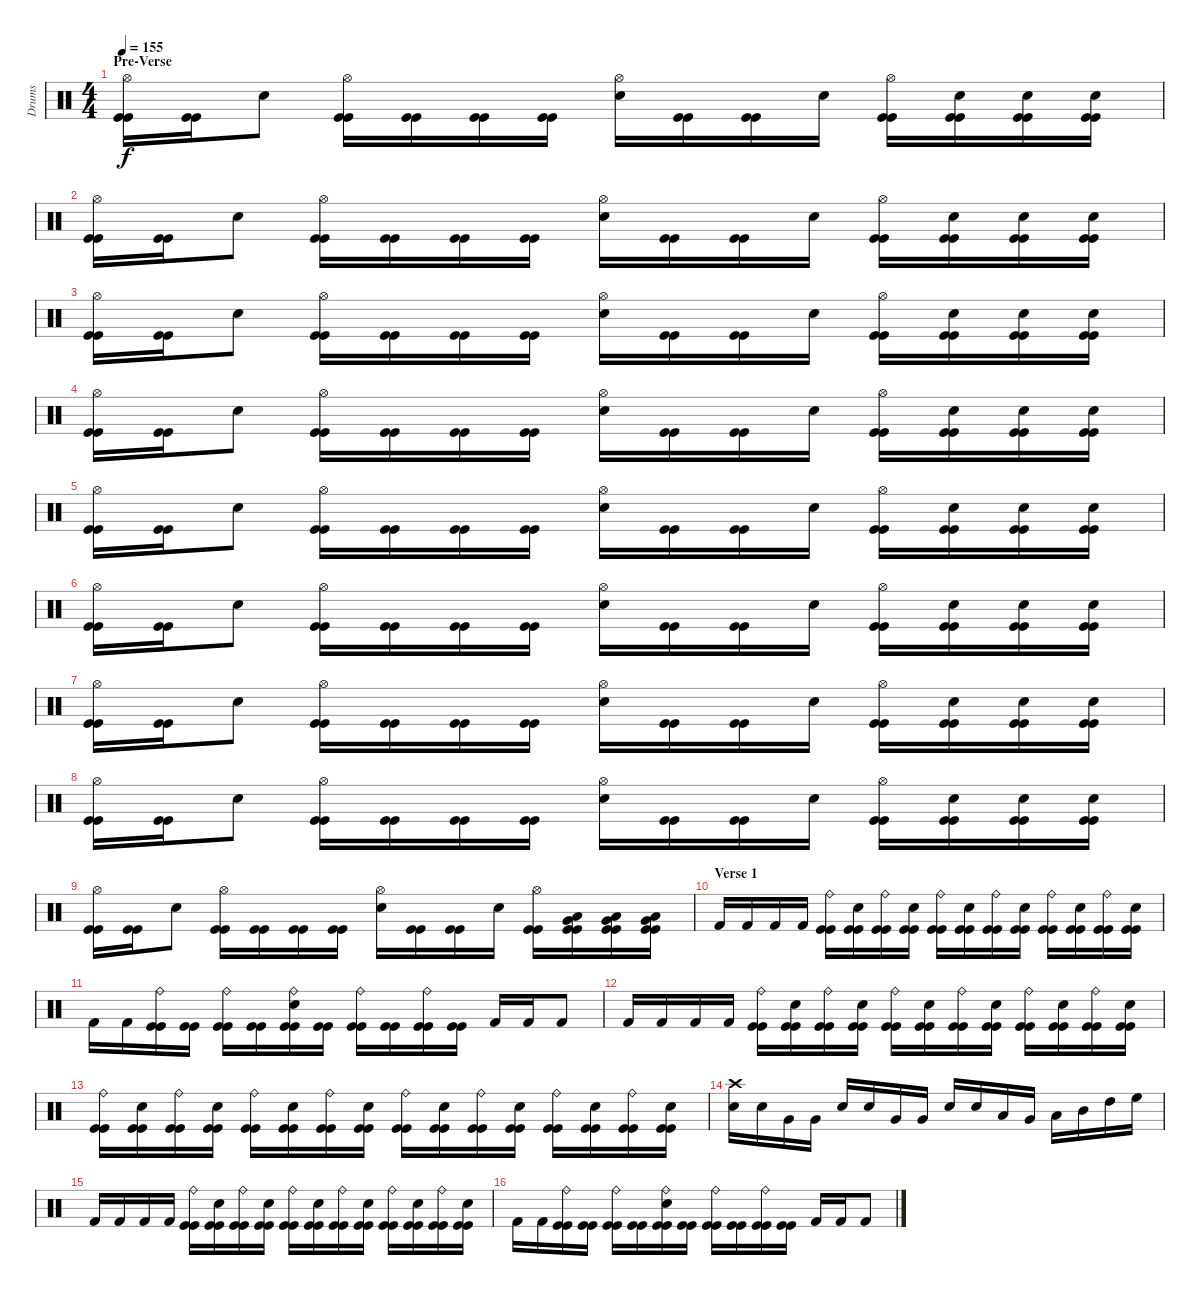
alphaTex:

\track ("Drums" "Drums") {instrument percussion}
\staff {score}
\articulation defaults
\ts (4 4)
\section ("" "Pre-Verse")
\tempo 155
\clef neutral
\ks c
("Hi-Hat (open)" "Kick (hit)" "Kick (hit)").16{dy f} ("Kick (hit)" "Kick (hit)").16 "Electric Snare (hit)".8 ("Hi-Hat (open)" "Kick (hit)" "Kick (hit)").16 ("Kick (hit)" "Kick (hit)").16 ("Kick (hit)" "Kick (hit)").16 ("Kick (hit)" "Kick (hit)").16 ("Hi-Hat (open)" "Electric Snare (hit)").16 ("Kick (hit)" "Kick (hit)").16 ("Kick (hit)" "Kick (hit)").16 "Electric Snare (hit)".16 ("Hi-Hat (open)" "Kick (hit)" "Kick (hit)").16 ("Electric Snare (hit)" "Kick (hit)" "Kick (hit)").16 ("Electric Snare (hit)" "Kick (hit)" "Kick (hit)").16 ("Electric Snare (hit)" "Kick (hit)" "Kick (hit)").16 |
("Hi-Hat (open)" "Kick (hit)" "Kick (hit)").16 ("Kick (hit)" "Kick (hit)").16 "Electric Snare (hit)".8 ("Hi-Hat (open)" "Kick (hit)" "Kick (hit)").16 ("Kick (hit)" "Kick (hit)").16 ("Kick (hit)" "Kick (hit)").16 ("Kick (hit)" "Kick (hit)").16 ("Hi-Hat (open)" "Electric Snare (hit)").16 ("Kick (hit)" "Kick (hit)").16 ("Kick (hit)" "Kick (hit)").16 "Electric Snare (hit)".16 ("Hi-Hat (open)" "Kick (hit)" "Kick (hit)").16 ("Electric Snare (hit)" "Kick (hit)" "Kick (hit)").16 ("Electric Snare (hit)" "Kick (hit)" "Kick (hit)").16 ("Electric Snare (hit)" "Kick (hit)" "Kick (hit)").16 |
("Hi-Hat (open)" "Kick (hit)" "Kick (hit)").16 ("Kick (hit)" "Kick (hit)").16 "Electric Snare (hit)".8 ("Hi-Hat (open)" "Kick (hit)" "Kick (hit)").16 ("Kick (hit)" "Kick (hit)").16 ("Kick (hit)" "Kick (hit)").16 ("Kick (hit)" "Kick (hit)").16 ("Hi-Hat (open)" "Electric Snare (hit)").16 ("Kick (hit)" "Kick (hit)").16 ("Kick (hit)" "Kick (hit)").16 "Electric Snare (hit)".16 ("Hi-Hat (open)" "Kick (hit)" "Kick (hit)").16 ("Electric Snare (hit)" "Kick (hit)" "Kick (hit)").16 ("Electric Snare (hit)" "Kick (hit)" "Kick (hit)").16 ("Electric Snare (hit)" "Kick (hit)" "Kick (hit)").16 |
("Hi-Hat (open)" "Kick (hit)" "Kick (hit)").16 ("Kick (hit)" "Kick (hit)").16 "Electric Snare (hit)".8 ("Hi-Hat (open)" "Kick (hit)" "Kick (hit)").16 ("Kick (hit)" "Kick (hit)").16 ("Kick (hit)" "Kick (hit)").16 ("Kick (hit)" "Kick (hit)").16 ("Hi-Hat (open)" "Electric Snare (hit)").16 ("Kick (hit)" "Kick (hit)").16 ("Kick (hit)" "Kick (hit)").16 "Electric Snare (hit)".16 ("Hi-Hat (open)" "Kick (hit)" "Kick (hit)").16 ("Electric Snare (hit)" "Kick (hit)" "Kick (hit)").16 ("Electric Snare (hit)" "Kick (hit)" "Kick (hit)").16 ("Electric Snare (hit)" "Kick (hit)" "Kick (hit)").16 |
("Hi-Hat (open)" "Kick (hit)" "Kick (hit)").16 ("Kick (hit)" "Kick (hit)").16 "Electric Snare (hit)".8 ("Hi-Hat (open)" "Kick (hit)" "Kick (hit)").16 ("Kick (hit)" "Kick (hit)").16 ("Kick (hit)" "Kick (hit)").16 ("Kick (hit)" "Kick (hit)").16 ("Hi-Hat (open)" "Electric Snare (hit)").16 ("Kick (hit)" "Kick (hit)").16 ("Kick (hit)" "Kick (hit)").16 "Electric Snare (hit)".16 ("Hi-Hat (open)" "Kick (hit)" "Kick (hit)").16 ("Electric Snare (hit)" "Kick (hit)" "Kick (hit)").16 ("Electric Snare (hit)" "Kick (hit)" "Kick (hit)").16 ("Electric Snare (hit)" "Kick (hit)" "Kick (hit)").16 |
("Hi-Hat (open)" "Kick (hit)" "Kick (hit)").16 ("Kick (hit)" "Kick (hit)").16 "Electric Snare (hit)".8 ("Hi-Hat (open)" "Kick (hit)" "Kick (hit)").16 ("Kick (hit)" "Kick (hit)").16 ("Kick (hit)" "Kick (hit)").16 ("Kick (hit)" "Kick (hit)").16 ("Hi-Hat (open)" "Electric Snare (hit)").16 ("Kick (hit)" "Kick (hit)").16 ("Kick (hit)" "Kick (hit)").16 "Electric Snare (hit)".16 ("Hi-Hat (open)" "Kick (hit)" "Kick (hit)").16 ("Electric Snare (hit)" "Kick (hit)" "Kick (hit)").16 ("Electric Snare (hit)" "Kick (hit)" "Kick (hit)").16 ("Electric Snare (hit)" "Kick (hit)" "Kick (hit)").16 |
("Hi-Hat (open)" "Kick (hit)" "Kick (hit)").16 ("Kick (hit)" "Kick (hit)").16 "Electric Snare (hit)".8 ("Hi-Hat (open)" "Kick (hit)" "Kick (hit)").16 ("Kick (hit)" "Kick (hit)").16 ("Kick (hit)" "Kick (hit)").16 ("Kick (hit)" "Kick (hit)").16 ("Hi-Hat (open)" "Electric Snare (hit)").16 ("Kick (hit)" "Kick (hit)").16 ("Kick (hit)" "Kick (hit)").16 "Electric Snare (hit)".16 ("Hi-Hat (open)" "Kick (hit)" "Kick (hit)").16 ("Electric Snare (hit)" "Kick (hit)" "Kick (hit)").16 ("Electric Snare (hit)" "Kick (hit)" "Kick (hit)").16 ("Electric Snare (hit)" "Kick (hit)" "Kick (hit)").16 |
("Hi-Hat (open)" "Kick (hit)" "Kick (hit)").16 ("Kick (hit)" "Kick (hit)").16 "Electric Snare (hit)".8 ("Hi-Hat (open)" "Kick (hit)" "Kick (hit)").16 ("Kick (hit)" "Kick (hit)").16 ("Kick (hit)" "Kick (hit)").16 ("Kick (hit)" "Kick (hit)").16 ("Hi-Hat (open)" "Electric Snare (hit)").16 ("Kick (hit)" "Kick (hit)").16 ("Kick (hit)" "Kick (hit)").16 "Electric Snare (hit)".16 ("Hi-Hat (open)" "Kick (hit)" "Kick (hit)").16 ("Electric Snare (hit)" "Kick (hit)" "Kick (hit)").16 ("Electric Snare (hit)" "Kick (hit)" "Kick (hit)").16 ("Electric Snare (hit)" "Kick (hit)" "Kick (hit)").16 |
("Hi-Hat (open)" "Kick (hit)" "Kick (hit)").16 ("Kick (hit)" "Kick (hit)").16 "Electric Snare (hit)".8 ("Hi-Hat (open)" "Kick (hit)" "Kick (hit)").16 ("Kick (hit)" "Kick (hit)").16 ("Kick (hit)" "Kick (hit)").16 ("Kick (hit)" "Kick (hit)").16 ("Hi-Hat (open)" "Electric Snare (hit)").16 ("Kick (hit)" "Kick (hit)").16 ("Kick (hit)" "Kick (hit)").16 "Electric Snare (hit)".16 ("Hi-Hat (open)" "Kick (hit)" "Kick (hit)").16 ("Low Tom (hit)" "Very Low Tom (hit)" "Kick (hit)" "Kick (hit)").16 ("Low Tom (hit)" "Very Low Tom (hit)" "Kick (hit)" "Kick (hit)").16 ("Low Tom (hit)" "Very Low Tom (hit)" "Kick (hit)" "Kick (hit)").16 |
\section ("" "Verse 1")
"Kick (hit) 2".16 "Kick (hit) 2".16 "Kick (hit) 2".16 "Kick (hit) 2".16 ("Ride (bell)" "Kick (hit)" "Kick (hit)").16 ("Electric Snare (hit)" "Kick (hit)" "Kick (hit)").16 ("Ride (bell)" "Kick (hit)" "Kick (hit)").16 ("Electric Snare (hit)" "Kick (hit)" "Kick (hit)").16 ("Ride (bell)" "Kick (hit)" "Kick (hit)").16 ("Electric Snare (hit)" "Kick (hit)" "Kick (hit)").16 ("Ride (bell)" "Kick (hit)" "Kick (hit)").16 ("Electric Snare (hit)" "Kick (hit)" "Kick (hit)").16 ("Ride (bell)" "Kick (hit)" "Kick (hit)").16 ("Electric Snare (hit)" "Kick (hit)" "Kick (hit)").16 ("Ride (bell)" "Kick (hit)" "Kick (hit)").16 ("Electric Snare (hit)" "Kick (hit)" "Kick (hit)").16 |
"Kick (hit) 2".16 "Kick (hit) 2".16 ("Ride (bell)" "Kick (hit)" "Kick (hit)").16 ("Kick (hit)" "Kick (hit)").16 ("Ride (bell)" "Kick (hit)" "Kick (hit)").16 ("Kick (hit)" "Kick (hit)").16 ("Ride (bell)" "Electric Snare (hit)" "Kick (hit)" "Kick (hit)").16 ("Kick (hit)" "Kick (hit)").16 ("Ride (bell)" "Kick (hit)" "Kick (hit)").16 ("Kick (hit)" "Kick (hit)").16 ("Ride (bell)" "Kick (hit)" "Kick (hit)").16 ("Kick (hit)" "Kick (hit)").16 "Kick (hit) 2".16 "Kick (hit) 2".16 "Kick (hit) 2".8 |
"Kick (hit) 2".16 "Kick (hit) 2".16 "Kick (hit) 2".16 "Kick (hit) 2".16 ("Ride (bell)" "Kick (hit)" "Kick (hit)").16 ("Electric Snare (hit)" "Kick (hit)" "Kick (hit)").16 ("Ride (bell)" "Kick (hit)" "Kick (hit)").16 ("Electric Snare (hit)" "Kick (hit)" "Kick (hit)").16 ("Ride (bell)" "Kick (hit)" "Kick (hit)").16 ("Electric Snare (hit)" "Kick (hit)" "Kick (hit)").16 ("Ride (bell)" "Kick (hit)" "Kick (hit)").16 ("Electric Snare (hit)" "Kick (hit)" "Kick (hit)").16 ("Ride (bell)" "Kick (hit)" "Kick (hit)").16 ("Electric Snare (hit)" "Kick (hit)" "Kick (hit)").16 ("Ride (bell)" "Kick (hit)" "Kick (hit)").16 ("Electric Snare (hit)" "Kick (hit)" "Kick (hit)").16 |
("Ride (bell)" "Kick (hit)" "Kick (hit)").16 ("Electric Snare (hit)" "Kick (hit)" "Kick (hit)").16 ("Ride (bell)" "Kick (hit)" "Kick (hit)").16 ("Electric Snare (hit)" "Kick (hit)" "Kick (hit)").16 ("Ride (bell)" "Kick (hit)" "Kick (hit)").16 ("Electric Snare (hit)" "Kick (hit)" "Kick (hit)").16 ("Ride (bell)" "Kick (hit)" "Kick (hit)").16 ("Electric Snare (hit)" "Kick (hit)" "Kick (hit)").16 ("Ride (bell)" "Kick (hit)" "Kick (hit)").16 ("Electric Snare (hit)" "Kick (hit)" "Kick (hit)").16 ("Ride (bell)" "Kick (hit)" "Kick (hit)").16 ("Electric Snare (hit)" "Kick (hit)" "Kick (hit)").16 ("Ride (bell)" "Kick (hit)" "Kick (hit)").16 ("Electric Snare (hit)" "Kick (hit)" "Kick (hit)").16 ("Ride (bell)" "Kick (hit)" "Kick (hit)").16 ("Electric Snare (hit)" "Kick (hit)" "Kick (hit)").16 |
("Crash high (hit)" "Electric Snare (hit)").16 "Electric Snare (hit)".16 "Very Low Tom (hit)".16 "Very Low Tom (hit)".16 "Electric Snare (hit)".16 "Electric Snare (hit)".16 "Very Low Tom (hit)".16 "Very Low Tom (hit)".16 "Electric Snare (hit)".16 "Electric Snare (hit)".16 "Low Floor Tom (hit)".16 "Very Low Tom (hit)".16 "Low Tom (hit)".16 "Mid Tom (hit)".16 "High Tom (hit)".16 "High Floor Tom (hit)".16 |
"Kick (hit) 2".16 "Kick (hit) 2".16 "Kick (hit) 2".16 "Kick (hit) 2".16 ("Ride (bell)" "Kick (hit)" "Kick (hit)").16 ("Electric Snare (hit)" "Kick (hit)" "Kick (hit)").16 ("Ride (bell)" "Kick (hit)" "Kick (hit)").16 ("Electric Snare (hit)" "Kick (hit)" "Kick (hit)").16 ("Ride (bell)" "Kick (hit)" "Kick (hit)").16 ("Electric Snare (hit)" "Kick (hit)" "Kick (hit)").16 ("Ride (bell)" "Kick (hit)" "Kick (hit)").16 ("Electric Snare (hit)" "Kick (hit)" "Kick (hit)").16 ("Ride (bell)" "Kick (hit)" "Kick (hit)").16 ("Electric Snare (hit)" "Kick (hit)" "Kick (hit)").16 ("Ride (bell)" "Kick (hit)" "Kick (hit)").16 ("Electric Snare (hit)" "Kick (hit)" "Kick (hit)").16 |
"Kick (hit) 2".16 "Kick (hit) 2".16 ("Ride (bell)" "Kick (hit)" "Kick (hit)").16 ("Kick (hit)" "Kick (hit)").16 ("Ride (bell)" "Kick (hit)" "Kick (hit)").16 ("Kick (hit)" "Kick (hit)").16 ("Ride (bell)" "Electric Snare (hit)" "Kick (hit)" "Kick (hit)").16 ("Kick (hit)" "Kick (hit)").16 ("Ride (bell)" "Kick (hit)" "Kick (hit)").16 ("Kick (hit)" "Kick (hit)").16 ("Ride (bell)" "Kick (hit)" "Kick (hit)").16 ("Kick (hit)" "Kick (hit)").16 "Kick (hit) 2".16 "Kick (hit) 2".16 "Kick (hit) 2".8
